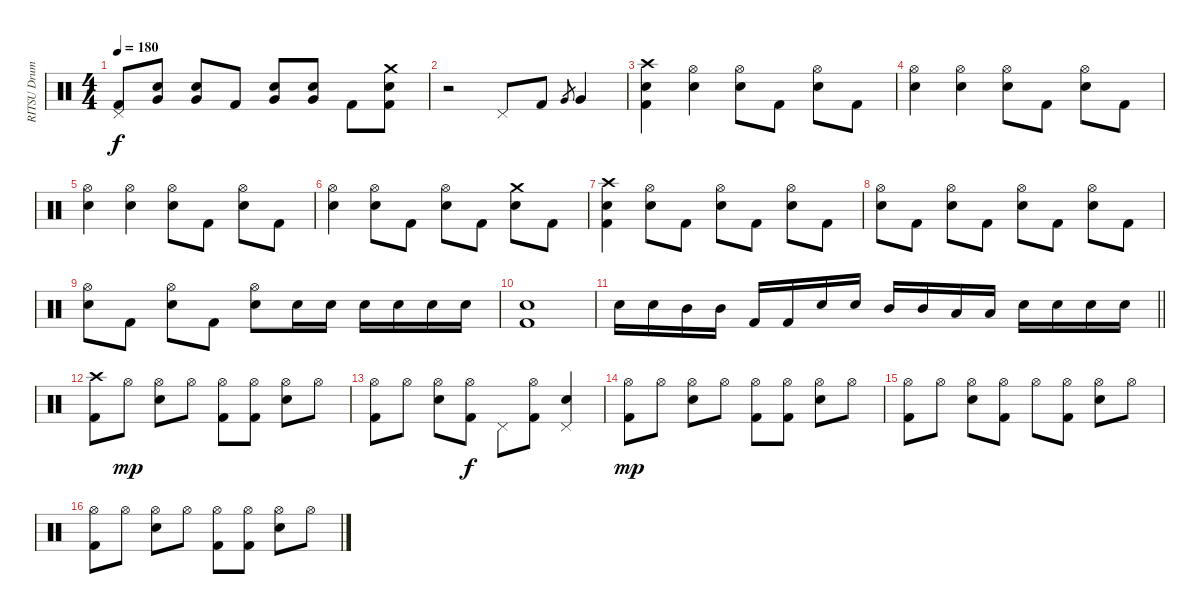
\track ("RITSU Drums" "RITSU Drum") {instrument percussion}
\staff {score}
\articulation defaults
\ts (4 4)
\tempo 180
\clef neutral
\ks c
("Pedal Hi-Hat (hit)" "Kick (hit) 2").8{dy f} ("Snare (hit) 2" "Very Low Tom (hit)").8 ("Snare (hit) 2" "Very Low Tom (hit)").8 "Kick (hit) 2".8 ("Snare (hit) 2" "Very Low Tom (hit)").8 ("Snare (hit) 2" "Very Low Tom (hit)").8 "Kick (hit) 2".8 ("Crash medium (hit)" "Snare (hit) 2" "Kick (hit) 2").8 |
r.2 "Pedal Hi-Hat (hit)".8 "Kick (hit) 2".8 "Very Low Tom (hit)".8{gr} "Very Low Tom (hit)".4 |
("Crash high (hit)" "Snare (hit) 2" "Kick (hit) 2").4 ("Hi-Hat (open)" "Snare (hit) 2").4 ("Hi-Hat (open)" "Snare (hit) 2").8 "Kick (hit) 2".8 ("Hi-Hat (open)" "Snare (hit) 2").8 "Kick (hit) 2".8 |
("Hi-Hat (open)" "Snare (hit) 2").4 ("Hi-Hat (open)" "Snare (hit) 2").4 ("Hi-Hat (open)" "Snare (hit) 2").8 "Kick (hit) 2".8 ("Hi-Hat (open)" "Snare (hit) 2").8 "Kick (hit) 2".8 |
("Hi-Hat (open)" "Snare (hit) 2").4 ("Hi-Hat (open)" "Snare (hit) 2").4 ("Hi-Hat (open)" "Snare (hit) 2").8 "Kick (hit) 2".8 ("Hi-Hat (open)" "Snare (hit) 2").8 "Kick (hit) 2".8 |
("Hi-Hat (open)" "Snare (hit) 2").4 ("Hi-Hat (open)" "Snare (hit) 2").8 "Kick (hit) 2".8 ("Hi-Hat (open)" "Snare (hit) 2").8 "Kick (hit) 2".8 ("Crash medium (hit)" "Snare (hit) 2").8 "Kick (hit) 2".8 |
("Crash high (hit)" "Snare (hit) 2" "Kick (hit) 2").4 ("Hi-Hat (open)" "Snare (hit) 2").8 "Kick (hit) 2".8 ("Hi-Hat (open)" "Snare (hit) 2").8 "Kick (hit) 2".8 ("Hi-Hat (open)" "Snare (hit) 2").8 "Kick (hit) 2".8 |
("Hi-Hat (open)" "Snare (hit) 2").8 "Kick (hit) 2".8 ("Hi-Hat (open)" "Snare (hit) 2").8 "Kick (hit) 2".8 ("Hi-Hat (open)" "Snare (hit) 2").8 "Kick (hit) 2".8 ("Hi-Hat (open)" "Snare (hit) 2").8 "Kick (hit) 2".8 |
("Hi-Hat (open)" "Snare (hit) 2").8 "Kick (hit) 2".8 ("Hi-Hat (open)" "Snare (hit) 2").8 "Kick (hit) 2".8 ("Hi-Hat (open)" "Snare (hit) 2").8 "Snare (hit) 2".16 "Snare (hit) 2".16 "Snare (hit) 2".16 "Snare (hit) 2".16 "Snare (hit) 2".16 "Snare (hit) 2".16 |
("Snare (hit) 2" "Kick (hit) 2").1 |
\barLineRight lightlight "Snare (hit) 2".16 "Snare (hit) 2".16 "Mid Tom (hit)".16 "Mid Tom (hit)".16 "Kick (hit) 2".16 "Kick (hit) 2".16 "Snare (hit) 2".16 "Snare (hit) 2".16 "Mid Tom (hit)".16 "Mid Tom (hit)".16 "Low Tom (hit)".16 "Low Tom (hit)".16 "Snare (hit) 2".16 "Snare (hit) 2".16 "Snare (hit) 2".16 "Snare (hit) 2".16
|
("Crash high (hit)" "Kick (hit) 2").8 "Hi-Hat (open)".8{dy mp} ("Hi-Hat (open)" "Snare (hit) 2").8 "Hi-Hat (open)".8 ("Hi-Hat (open)" "Kick (hit) 2").8 ("Hi-Hat (open)" "Kick (hit) 2").8 ("Hi-Hat (open)" "Snare (hit) 2").8 "Hi-Hat (open)".8 |
("Hi-Hat (open)" "Kick (hit) 2").8 "Hi-Hat (open)".8 ("Hi-Hat (open)" "Snare (hit) 2").8 ("Hi-Hat (open)" "Kick (hit) 2").8{dy f} "Pedal Hi-Hat (hit)".8 ("Hi-Hat (open)" "Kick (hit) 2").8 ("Pedal Hi-Hat (hit)" "Snare (hit) 2").4 |
("Hi-Hat (open)" "Kick (hit) 2").8{dy mp} "Hi-Hat (open)".8 ("Hi-Hat (open)" "Snare (hit) 2").8 "Hi-Hat (open)".8 ("Hi-Hat (open)" "Kick (hit) 2").8 ("Hi-Hat (open)" "Kick (hit) 2").8 ("Hi-Hat (open)" "Snare (hit) 2").8 "Hi-Hat (open)".8 |
("Hi-Hat (open)" "Kick (hit) 2").8 "Hi-Hat (open)".8 ("Hi-Hat (open)" "Snare (hit) 2").8 ("Hi-Hat (open)" "Kick (hit) 2").8 "Hi-Hat (open)".8 ("Hi-Hat (open)" "Kick (hit) 2").8 ("Hi-Hat (open)" "Snare (hit) 2").8 "Hi-Hat (open)".8 |
("Hi-Hat (open)" "Kick (hit) 2").8 "Hi-Hat (open)".8 ("Hi-Hat (open)" "Snare (hit) 2").8 "Hi-Hat (open)".8 ("Hi-Hat (open)" "Kick (hit) 2").8 ("Hi-Hat (open)" "Kick (hit) 2").8 ("Hi-Hat (open)" "Snare (hit) 2").8 "Hi-Hat (open)".8
